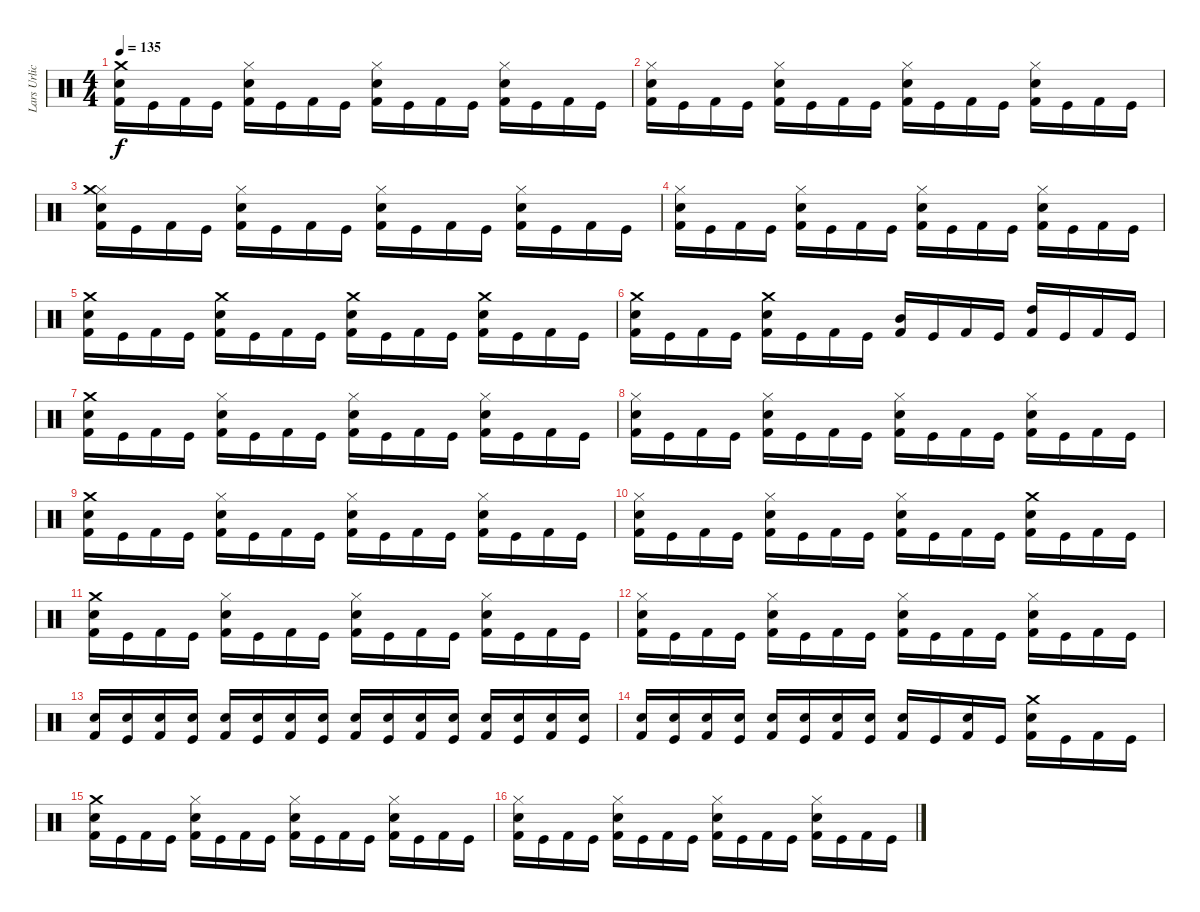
\track ("Lars Urlich (drums)" "Lars Urlic") {instrument percussion}
\staff {score}
\articulation defaults
\ts (4 4)
\tempo 135
\clef neutral
\ks c
("Crash medium (hit)" "Snare (hit) 2" "Kick (hit) 2").16{dy f} "Kick (hit)".16 "Kick (hit) 2".16 "Kick (hit)".16 ("Hi-Hat (closed)" "Snare (hit) 2" "Kick (hit) 2").16 "Kick (hit)".16 "Kick (hit) 2".16 "Kick (hit)".16 ("Hi-Hat (closed)" "Snare (hit) 2" "Kick (hit) 2").16 "Kick (hit)".16 "Kick (hit) 2".16 "Kick (hit)".16 ("Hi-Hat (closed)" "Snare (hit) 2" "Kick (hit) 2").16 "Kick (hit)".16 "Kick (hit) 2".16 "Kick (hit)".16 |
("Snare (hit) 2" "Hi-Hat (closed)" "Kick (hit) 2").16 "Kick (hit)".16 "Kick (hit) 2".16 "Kick (hit)".16 ("Snare (hit) 2" "Hi-Hat (closed)" "Kick (hit) 2").16 "Kick (hit)".16 "Kick (hit) 2".16 "Kick (hit)".16 ("Snare (hit) 2" "Hi-Hat (closed)" "Kick (hit) 2").16 "Kick (hit)".16 "Kick (hit) 2".16 "Kick (hit)".16 ("Snare (hit) 2" "Hi-Hat (closed)" "Kick (hit) 2").16 "Kick (hit)".16 "Kick (hit) 2".16 "Kick (hit)".16 |
("Hi-Hat (closed)" "Snare (hit) 2" "Crash medium (hit)" "Kick (hit) 2").16 "Kick (hit)".16 "Kick (hit) 2".16 "Kick (hit)".16 ("Hi-Hat (closed)" "Snare (hit) 2" "Kick (hit) 2").16 "Kick (hit)".16 "Kick (hit) 2".16 "Kick (hit)".16 ("Hi-Hat (closed)" "Snare (hit) 2" "Kick (hit) 2").16 "Kick (hit)".16 "Kick (hit) 2".16 "Kick (hit)".16 ("Hi-Hat (closed)" "Snare (hit) 2" "Kick (hit) 2").16 "Kick (hit)".16 "Kick (hit) 2".16 "Kick (hit)".16 |
("Hi-Hat (closed)" "Snare (hit) 2" "Kick (hit) 2").16 "Kick (hit)".16 "Kick (hit) 2".16 "Kick (hit)".16 ("Hi-Hat (closed)" "Snare (hit) 2" "Kick (hit) 2").16 "Kick (hit)".16 "Kick (hit) 2".16 "Kick (hit)".16 ("Hi-Hat (closed)" "Snare (hit) 2" "Kick (hit) 2").16 "Kick (hit)".16 "Kick (hit) 2".16 "Kick (hit)".16 ("Hi-Hat (closed)" "Snare (hit) 2" "Kick (hit) 2").16 "Kick (hit)".16 "Kick (hit) 2".16 "Kick (hit)".16 |
("Snare (hit) 2" "Crash medium (hit)" "Kick (hit) 2").16 "Kick (hit)".16 "Kick (hit) 2".16 "Kick (hit)".16 ("Snare (hit) 2" "Crash medium (hit)" "Kick (hit) 2").16 "Kick (hit)".16 "Kick (hit) 2".16 "Kick (hit)".16 ("Snare (hit) 2" "Crash medium (hit)" "Kick (hit) 2").16 "Kick (hit)".16 "Kick (hit) 2".16 "Kick (hit)".16 ("Snare (hit) 2" "Crash medium (hit)" "Kick (hit) 2").16 "Kick (hit)".16 "Kick (hit) 2".16 "Kick (hit)".16 |
("Snare (hit) 2" "Crash medium (hit)" "Kick (hit) 2").16 "Kick (hit)".16 "Kick (hit) 2".16 "Kick (hit)".16 ("Snare (hit) 2" "Crash medium (hit)" "Kick (hit) 2").16 "Kick (hit)".16 "Kick (hit) 2".16 "Kick (hit)".16 ("Mid Tom (hit)" "Kick (hit) 2").16 "Kick (hit)".16 "Kick (hit) 2".16 "Kick (hit)".16 ("High Tom (hit)" "Kick (hit) 2").16 "Kick (hit)".16 "Kick (hit) 2".16 "Kick (hit)".16 |
("Crash medium (hit)" "Snare (hit) 2" "Kick (hit) 2").16 "Kick (hit)".16 "Kick (hit) 2".16 "Kick (hit)".16 ("Hi-Hat (closed)" "Snare (hit) 2" "Kick (hit) 2").16 "Kick (hit)".16 "Kick (hit) 2".16 "Kick (hit)".16 ("Hi-Hat (closed)" "Snare (hit) 2" "Kick (hit) 2").16 "Kick (hit)".16 "Kick (hit) 2".16 "Kick (hit)".16 ("Hi-Hat (closed)" "Snare (hit) 2" "Kick (hit) 2").16 "Kick (hit)".16 "Kick (hit) 2".16 "Kick (hit)".16 |
("Hi-Hat (closed)" "Snare (hit) 2" "Kick (hit) 2").16 "Kick (hit)".16 "Kick (hit) 2".16 "Kick (hit)".16 ("Hi-Hat (closed)" "Snare (hit) 2" "Kick (hit) 2").16 "Kick (hit)".16 "Kick (hit) 2".16 "Kick (hit)".16 ("Hi-Hat (closed)" "Snare (hit) 2" "Kick (hit) 2").16 "Kick (hit)".16 "Kick (hit) 2".16 "Kick (hit)".16 ("Hi-Hat (closed)" "Snare (hit) 2" "Kick (hit) 2").16 "Kick (hit)".16 "Kick (hit) 2".16 "Kick (hit)".16 |
("Snare (hit) 2" "Crash medium (hit)" "Kick (hit) 2").16 "Kick (hit)".16 "Kick (hit) 2".16 "Kick (hit)".16 ("Hi-Hat (closed)" "Snare (hit) 2" "Kick (hit) 2").16 "Kick (hit)".16 "Kick (hit) 2".16 "Kick (hit)".16 ("Hi-Hat (closed)" "Snare (hit) 2" "Kick (hit) 2").16 "Kick (hit)".16 "Kick (hit) 2".16 "Kick (hit)".16 ("Hi-Hat (closed)" "Snare (hit) 2" "Kick (hit) 2").16 "Kick (hit)".16 "Kick (hit) 2".16 "Kick (hit)".16 |
("Snare (hit) 2" "Hi-Hat (closed)" "Kick (hit) 2").16 "Kick (hit)".16 "Kick (hit) 2".16 "Kick (hit)".16 ("Snare (hit) 2" "Hi-Hat (closed)" "Kick (hit) 2").16 "Kick (hit)".16 "Kick (hit) 2".16 "Kick (hit)".16 ("Snare (hit) 2" "Hi-Hat (closed)" "Kick (hit) 2").16 "Kick (hit)".16 "Kick (hit) 2".16 "Kick (hit)".16 ("Crash medium (hit)" "Snare (hit) 2" "Kick (hit) 2").16 "Kick (hit)".16 "Kick (hit) 2".16 "Kick (hit)".16 |
("Snare (hit) 2" "Crash medium (hit)" "Kick (hit) 2").16 "Kick (hit)".16 "Kick (hit) 2".16 "Kick (hit)".16 ("Hi-Hat (closed)" "Snare (hit) 2" "Kick (hit) 2").16 "Kick (hit)".16 "Kick (hit) 2".16 "Kick (hit)".16 ("Hi-Hat (closed)" "Snare (hit) 2" "Kick (hit) 2").16 "Kick (hit)".16 "Kick (hit) 2".16 "Kick (hit)".16 ("Hi-Hat (closed)" "Snare (hit) 2" "Kick (hit) 2").16 "Kick (hit)".16 "Kick (hit) 2".16 "Kick (hit)".16 |
("Snare (hit) 2" "Hi-Hat (closed)" "Kick (hit) 2").16 "Kick (hit)".16 "Kick (hit) 2".16 "Kick (hit)".16 ("Snare (hit) 2" "Hi-Hat (closed)" "Kick (hit) 2").16 "Kick (hit)".16 "Kick (hit) 2".16 "Kick (hit)".16 ("Snare (hit) 2" "Hi-Hat (closed)" "Kick (hit) 2").16 "Kick (hit)".16 "Kick (hit) 2".16 "Kick (hit)".16 ("Snare (hit) 2" "Hi-Hat (closed)" "Kick (hit) 2").16 "Kick (hit)".16 "Kick (hit) 2".16 "Kick (hit)".16 |
("Snare (hit) 2" "Kick (hit) 2").16 ("Snare (hit) 2" "Kick (hit)").16 ("Snare (hit) 2" "Kick (hit) 2").16 ("Snare (hit) 2" "Kick (hit)").16 ("Snare (hit) 2" "Kick (hit) 2").16 ("Snare (hit) 2" "Kick (hit)").16 ("Snare (hit) 2" "Kick (hit) 2").16 ("Snare (hit) 2" "Kick (hit)").16 ("Snare (hit) 2" "Kick (hit) 2").16 ("Snare (hit) 2" "Kick (hit)").16 ("Snare (hit) 2" "Kick (hit) 2").16 ("Snare (hit) 2" "Kick (hit)").16 ("Snare (hit) 2" "Kick (hit) 2").16 ("Snare (hit) 2" "Kick (hit)").16 ("Snare (hit) 2" "Kick (hit) 2").16 ("Snare (hit) 2" "Kick (hit)").16 |
("Snare (hit) 2" "Kick (hit) 2").16 ("Snare (hit) 2" "Kick (hit)").16 ("Snare (hit) 2" "Kick (hit) 2").16 ("Snare (hit) 2" "Kick (hit)").16 ("Snare (hit) 2" "Kick (hit) 2").16 ("Snare (hit) 2" "Kick (hit)").16 ("Snare (hit) 2" "Kick (hit) 2").16 ("Snare (hit) 2" "Kick (hit)").16 ("Snare (hit) 2" "Kick (hit) 2").16 "Kick (hit)".16 ("Snare (hit) 2" "Kick (hit) 2").16 "Kick (hit)".16 ("Crash medium (hit)" "Snare (hit) 2" "Kick (hit) 2").16 "Kick (hit)".16 "Kick (hit) 2".16 "Kick (hit)".16 |
("Snare (hit) 2" "Crash medium (hit)" "Kick (hit) 2").16 "Kick (hit)".16 "Kick (hit) 2".16 "Kick (hit)".16 ("Hi-Hat (closed)" "Snare (hit) 2" "Kick (hit) 2").16 "Kick (hit)".16 "Kick (hit) 2".16 "Kick (hit)".16 ("Hi-Hat (closed)" "Snare (hit) 2" "Kick (hit) 2").16 "Kick (hit)".16 "Kick (hit) 2".16 "Kick (hit)".16 ("Hi-Hat (closed)" "Snare (hit) 2" "Kick (hit) 2").16 "Kick (hit)".16 "Kick (hit) 2".16 "Kick (hit)".16 |
("Snare (hit) 2" "Hi-Hat (closed)" "Kick (hit) 2").16 "Kick (hit)".16 "Kick (hit) 2".16 "Kick (hit)".16 ("Snare (hit) 2" "Hi-Hat (closed)" "Kick (hit) 2").16 "Kick (hit)".16 "Kick (hit) 2".16 "Kick (hit)".16 ("Snare (hit) 2" "Hi-Hat (closed)" "Kick (hit) 2").16 "Kick (hit)".16 "Kick (hit) 2".16 "Kick (hit)".16 ("Snare (hit) 2" "Hi-Hat (closed)" "Kick (hit) 2").16 "Kick (hit)".16 "Kick (hit) 2".16 "Kick (hit)".16
